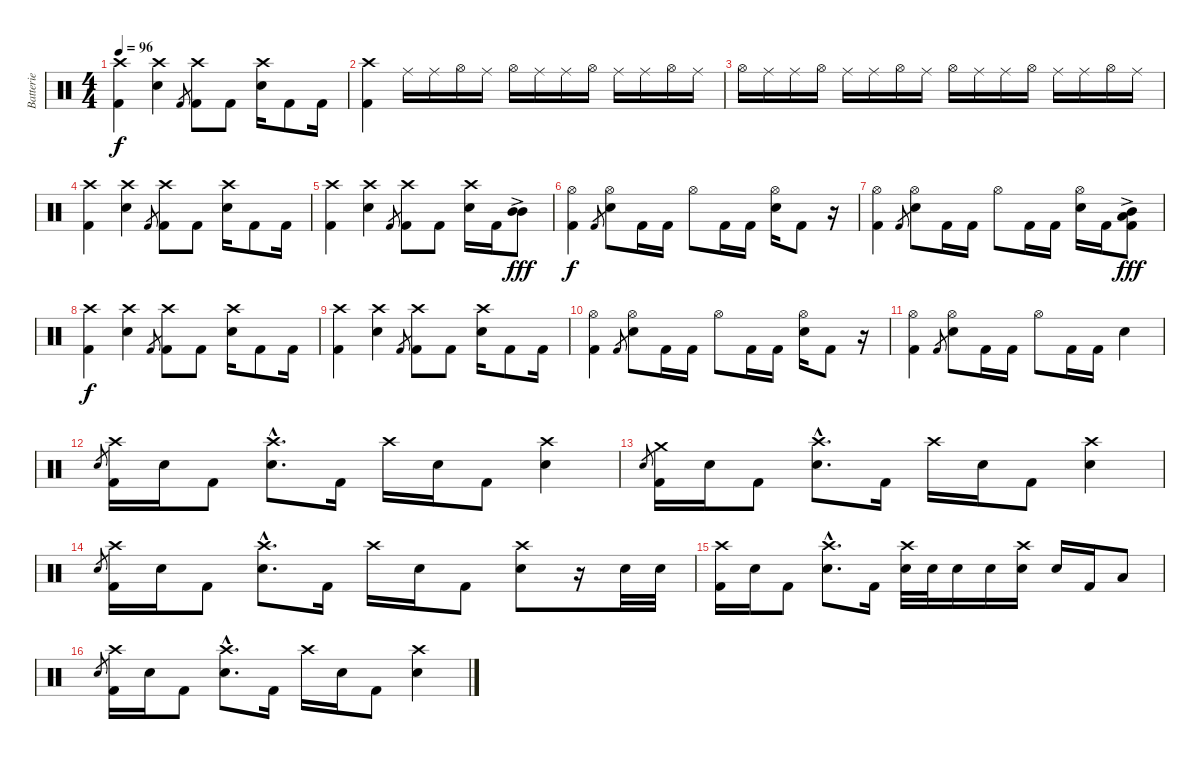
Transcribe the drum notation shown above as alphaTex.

\track ("Batterie" "Batterie") {instrument percussion}
\staff {score}
\articulation defaults
\ts (4 4)
\tempo 96
\clef neutral
\ks c
("Crash high (hit)" "Kick (hit) 2").4{dy f} ("Crash high (hit)" "Snare (hit) 2").4 "Kick (hit) 2".8{gr} ("Crash high (hit)" "Kick (hit) 2").8 "Kick (hit) 2".8 ("Crash high (hit)" "Snare (hit) 2").16 "Kick (hit) 2".8 "Kick (hit) 2".16 |
("Crash high (hit)" "Kick (hit) 2").4 "Ride (middle)".16 "Ride (middle)".16 "Hi-Hat (open)".16 "Ride (middle)".16 "Hi-Hat (open)".16 "Ride (middle)".16 "Ride (middle)".16 "Hi-Hat (open)".16 "Ride (middle)".16 "Ride (middle)".16 "Hi-Hat (open)".16 "Ride (middle)".16 |
"Hi-Hat (open)".16 "Ride (middle)".16 "Ride (middle)".16 "Hi-Hat (open)".16 "Ride (middle)".16 "Ride (middle)".16 "Hi-Hat (open)".16 "Ride (middle)".16 "Hi-Hat (open)".16 "Ride (middle)".16 "Ride (middle)".16 "Hi-Hat (open)".16 "Ride (middle)".16 "Ride (middle)".16 "Hi-Hat (open)".16 "Ride (middle)".16 |
("Crash high (hit)" "Kick (hit) 2").4 ("Crash high (hit)" "Snare (hit) 2").4 "Kick (hit) 2".8{gr} ("Crash high (hit)" "Kick (hit) 2").8 "Kick (hit) 2".8 ("Crash high (hit)" "Snare (hit) 2").16 "Kick (hit) 2".8 "Kick (hit) 2".16 |
("Crash high (hit)" "Kick (hit) 2").4 ("Crash high (hit)" "Snare (hit) 2").4 "Kick (hit) 2".8{gr} ("Crash high (hit)" "Kick (hit) 2").8 "Kick (hit) 2".8 ("Crash high (hit)" "Snare (hit) 2").16 "Kick (hit) 2".16 ("Mid Tom (hit)"{ac} "Mid Tom (hit)"{ac}).8{dy fff} |
("Hi-Hat (open)" "Kick (hit) 2").4{dy f} "Kick (hit) 2".8{gr} ("Hi-Hat (open)" "Snare (hit) 2").8 "Kick (hit) 2".16 "Kick (hit) 2".16 "Hi-Hat (open)".8 "Kick (hit) 2".16 "Kick (hit) 2".16 ("Hi-Hat (open)" "Snare (hit) 2").16 "Kick (hit) 2".8 r.16 |
("Hi-Hat (open)" "Kick (hit) 2").4 "Kick (hit) 2".8{gr} ("Hi-Hat (open)" "Snare (hit) 2").8 "Kick (hit) 2".16 "Kick (hit) 2".16 "Hi-Hat (open)".8 "Kick (hit) 2".16 "Kick (hit) 2".16 ("Hi-Hat (open)" "Snare (hit) 2").16 "Kick (hit) 2".16 ("Mid Tom (hit)"{ac} "Low Tom (hit)"{ac} "Kick (hit) 2").8{dy fff} |
("Crash high (hit)" "Kick (hit) 2").4{dy f} ("Crash high (hit)" "Snare (hit) 2").4 "Kick (hit) 2".8{gr} ("Crash high (hit)" "Kick (hit) 2").8 "Kick (hit) 2".8 ("Crash high (hit)" "Snare (hit) 2").16 "Kick (hit) 2".8 "Kick (hit) 2".16 |
("Crash high (hit)" "Kick (hit) 2").4 ("Crash high (hit)" "Snare (hit) 2").4 "Kick (hit) 2".8{gr} ("Crash high (hit)" "Kick (hit) 2").8 "Kick (hit) 2".8 ("Crash high (hit)" "Snare (hit) 2").16 "Kick (hit) 2".8 "Kick (hit) 2".16 |
("Hi-Hat (open)" "Kick (hit) 2").4 "Kick (hit) 2".8{gr} ("Hi-Hat (open)" "Snare (hit) 2").8 "Kick (hit) 2".16 "Kick (hit) 2".16 "Hi-Hat (open)".8 "Kick (hit) 2".16 "Kick (hit) 2".16 ("Hi-Hat (open)" "Snare (hit) 2").16 "Kick (hit) 2".8 r.16 |
("Hi-Hat (open)" "Kick (hit) 2").4 "Kick (hit) 2".8{gr} ("Hi-Hat (open)" "Snare (hit) 2").8 "Kick (hit) 2".16 "Kick (hit) 2".16 "Hi-Hat (open)".8 "Kick (hit) 2".16 "Kick (hit) 2".16 "Snare (hit) 2"{tr (38 32)}.4 |
"Snare (hit) 2".8{gr} ("Crash high (hit)" "Kick (hit) 2").16 "Snare (hit) 2".16 "Kick (hit) 2".8 ("Crash high (hit)"{hac} "Snare (hit) 2"{hac}).8{d} "Kick (hit) 2".16 "Crash high (hit)".16 "Snare (hit) 2".16 "Kick (hit) 2".8 ("Crash high (hit)" "Snare (hit) 2").4 |
"Snare (hit) 2".8{gr} ("Crash medium (hit)" "Kick (hit) 2").16 "Snare (hit) 2".16 "Kick (hit) 2".8 ("Crash high (hit)"{hac} "Snare (hit) 2"{hac}).8{d} "Kick (hit) 2".16 "Crash high (hit)".16 "Snare (hit) 2".16 "Kick (hit) 2".8 ("Crash high (hit)" "Snare (hit) 2").4 |
"Snare (hit) 2".8{gr} ("Crash high (hit)" "Kick (hit) 2").16 "Snare (hit) 2".16 "Kick (hit) 2".8 ("Crash high (hit)"{hac} "Snare (hit) 2"{hac}).8{d} "Kick (hit) 2".16 "Crash high (hit)".16 "Snare (hit) 2".16 "Kick (hit) 2".8 ("Crash high (hit)" "Snare (hit) 2").8 r.16 "Snare (hit) 2".32 "Snare (hit) 2".32 |
("Crash high (hit)" "Kick (hit) 2").16 "Snare (hit) 2".16 "Kick (hit) 2".8 ("Crash high (hit)"{hac} "Snare (hit) 2"{hac}).8{d} "Kick (hit) 2".16 ("Crash high (hit)" "Snare (hit) 2").32 "Snare (hit) 2".32 "Snare (hit) 2".16 "Snare (hit) 2".16 ("Crash high (hit)" "Snare (hit) 2").16 "Snare (hit) 2".16 "Kick (hit) 2".16 "Low Tom (hit)".8 |
"Snare (hit) 2".8{gr} ("Crash high (hit)" "Kick (hit) 2").16 "Snare (hit) 2".16 "Kick (hit) 2".8 ("Crash high (hit)"{hac} "Snare (hit) 2"{hac}).8{d} "Kick (hit) 2".16 "Crash high (hit)".16 "Snare (hit) 2".16 "Kick (hit) 2".8 ("Crash high (hit)" "Snare (hit) 2").4
